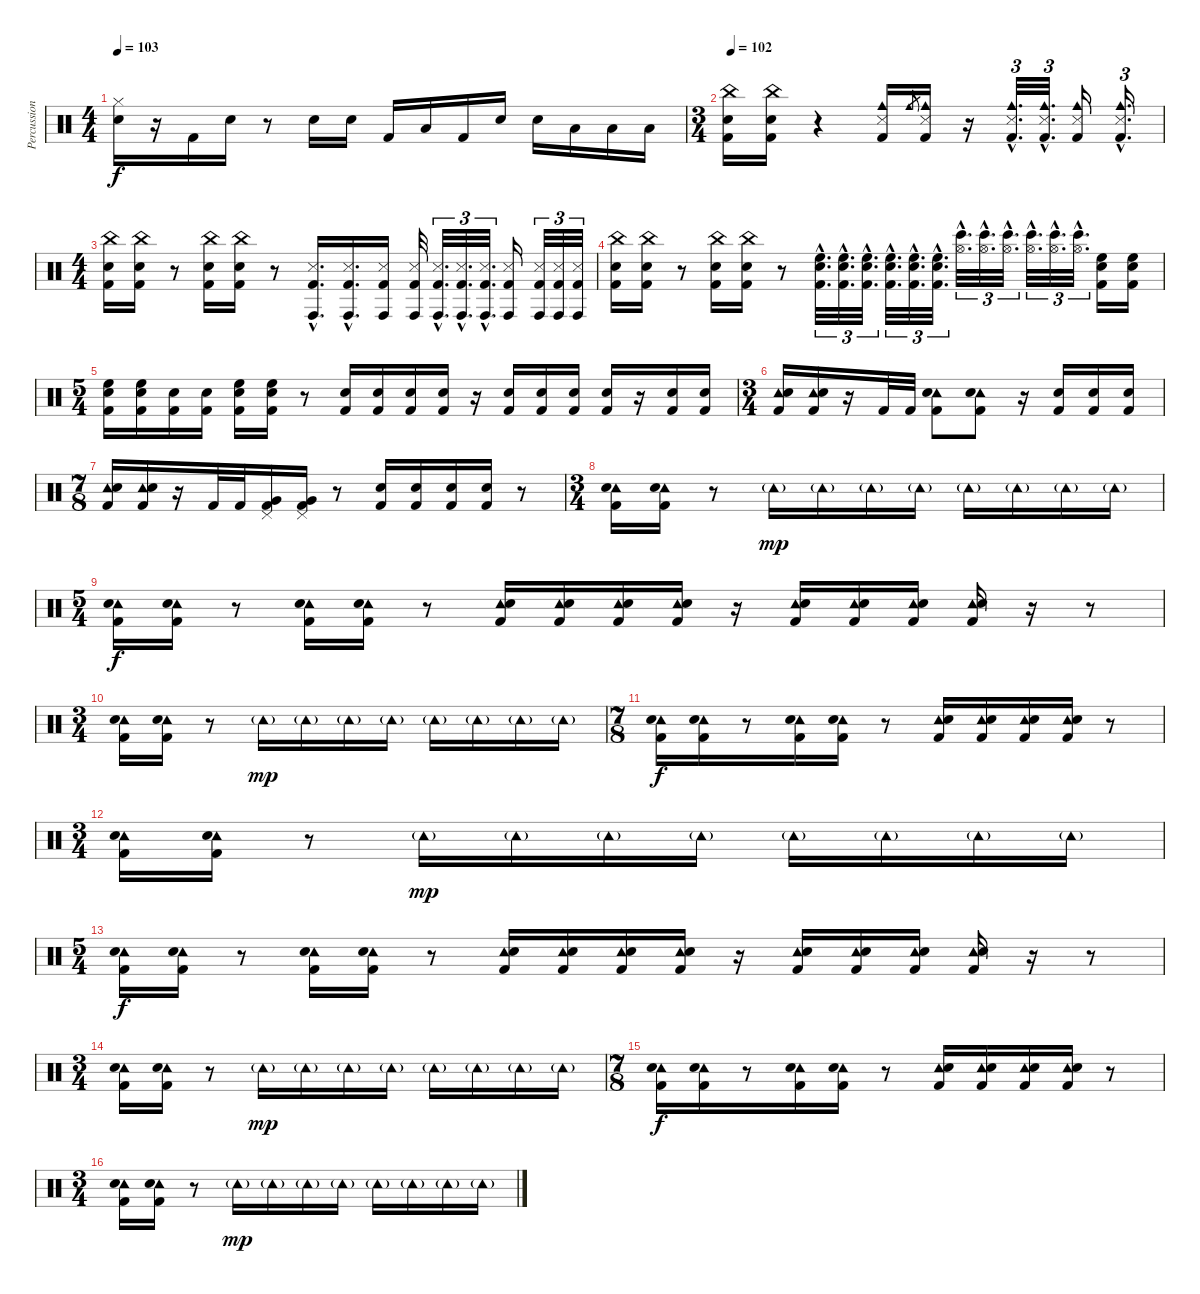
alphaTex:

\track ("Percussion" "Percussion") {instrument percussion}
\staff {score}
\articulation defaults
\ts (4 4)
\tempo 103
\clef neutral
\ks c
("Hi-Hat (closed)" "Snare (hit) 2").16{dy f} r.16 "Kick (hit) 2".16 "Electric Snare (hit)".16 r.8 "Snare (hit) 2".16 "Snare (hit) 2".16 "Kick (hit) 2".16 "Low Tom (hit)".16 "Kick (hit) 2".16 "Snare (hit) 2".16 "Snare (hit) 2".16 "Low Tom (hit)".16 "Low Tom (hit)".16 "Low Tom (hit)".16 |
\ts (3 4)
\tempo 102
("China (hit)" "Snare (hit) 2" "Kick (hit) 2").16 ("China (hit)" "Snare (hit) 2" "Kick (hit) 2").16 r.4 ("Cowbell medium (hit)" "Metronome (hit)" "Kick (hit) 2").16 "Cowbell medium (hit)".8{gr} ("Cowbell medium (hit)" "Metronome (hit)" "Kick (hit) 2").16 r.16 ("Cowbell medium (hit)"{hac} "Metronome (hit)"{hac} "Kick (hit) 2"{hac}).32{d tu (3 2)} ("Cowbell medium (hit)"{hac} "Metronome (hit)"{hac} "Kick (hit) 2"{hac}).32{d tu (3 2)} ("Cowbell medium (hit)" "Metronome (hit)" "Kick (hit) 2").16 ("Cowbell medium (hit)"{hac} "Metronome (hit)"{hac} "Kick (hit) 2"{hac}).16{d tu (3 2)} |
\ts (4 4)
("China (hit)" "Snare (hit) 2" "Kick (hit) 2").16 ("China (hit)" "Snare (hit) 2" "Kick (hit) 2").16 r.8 ("China (hit)" "Snare (hit) 2" "Kick (hit) 2").16 ("China (hit)" "Snare (hit) 2" "Kick (hit) 2").16 r.8 ("Conga high (hit)"{hac} "Metronome (hit)"{hac} "Kick (hit) 2"{hac}).16{d} ("Conga high (hit)"{hac} "Metronome (hit)"{hac} "Kick (hit) 2"{hac}).16{d} ("Conga high (hit)" "Metronome (hit)" "Kick (hit) 2").16 ("Conga high (hit)" "Metronome (hit)" "Kick (hit) 2").32 ("Conga high (hit)"{hac} "Metronome (hit)"{hac} "Kick (hit) 2"{hac}).32{d tu (3 2)} ("Conga high (hit)"{hac} "Metronome (hit)"{hac} "Kick (hit) 2"{hac}).32{d tu (3 2)} ("Conga high (hit)"{hac} "Metronome (hit)"{hac} "Kick (hit) 2"{hac}).32{d tu (3 2)} ("Conga high (hit)" "Metronome (hit)" "Kick (hit) 2").16 ("Conga high (hit)" "Metronome (hit)" "Kick (hit) 2").32{tu (3 2)} ("Conga high (hit)" "Metronome (hit)" "Kick (hit) 2").32{tu (3 2)} ("Conga high (hit)" "Metronome (hit)" "Kick (hit) 2").32{tu (3 2)} |
("China (hit)" "Snare (hit) 2" "Kick (hit) 2").16 ("China (hit)" "Snare (hit) 2" "Kick (hit) 2").16 r.8 ("China (hit)" "Snare (hit) 2" "Kick (hit) 2").16 ("China (hit)" "Snare (hit) 2" "Kick (hit) 2").16 r.8 ("High Floor Tom (hit)"{hac} "Electric Snare (hit)"{hac} "Kick (hit) 2"{hac}).32{d tu (3 2)} ("High Floor Tom (hit)"{hac} "Electric Snare (hit)"{hac} "Kick (hit) 2"{hac}).32{d tu (3 2)} ("High Floor Tom (hit)"{hac} "Electric Snare (hit)"{hac} "Kick (hit) 2"{hac}).32{d tu (3 2)} ("High Floor Tom (hit)"{hac} "Electric Snare (hit)"{hac} "Kick (hit) 2"{hac}).32{d tu (3 2)} ("High Floor Tom (hit)"{hac} "Electric Snare (hit)"{hac} "Kick (hit) 2"{hac}).32{d tu (3 2)} ("High Floor Tom (hit)"{hac} "Electric Snare (hit)"{hac} "Kick (hit) 2"{hac}).32{d tu (3 2)} ("Hi-Hat (open)"{hac} "Bongo High (hit)"{hac}).32{d tu (3 2)} ("Hi-Hat (open)"{hac} "Bongo High (hit)"{hac}).32{d tu (3 2)} ("Hi-Hat (open)"{hac} "Bongo High (hit)"{hac}).32{d tu (3 2)} ("Hi-Hat (open)"{hac} "Bongo High (hit)"{hac}).32{d tu (3 2)} ("Hi-Hat (open)"{hac} "Bongo High (hit)"{hac}).32{d tu (3 2)} ("Hi-Hat (open)"{hac} "Bongo High (hit)"{hac}).32{d tu (3 2)} ("High Floor Tom (hit)" "Electric Snare (hit)" "Kick (hit) 2").16 ("High Floor Tom (hit)" "Electric Snare (hit)" "Kick (hit) 2").16 |
\ts (5 4)
("High Floor Tom (hit)" "Electric Snare (hit)" "Kick (hit) 2").16 ("High Floor Tom (hit)" "Electric Snare (hit)" "Kick (hit) 2").16 ("Electric Snare (hit)" "Kick (hit) 2").16 ("Electric Snare (hit)" "Kick (hit) 2").16 ("High Floor Tom (hit)" "Electric Snare (hit)" "Kick (hit) 2").16 ("High Floor Tom (hit)" "Electric Snare (hit)" "Kick (hit) 2").16 r.8 ("Electric Snare (hit)" "Kick (hit) 2").16 ("Electric Snare (hit)" "Kick (hit) 2").16 ("Electric Snare (hit)" "Kick (hit) 2").16 ("Electric Snare (hit)" "Kick (hit) 2").16 r.16 ("Electric Snare (hit)" "Kick (hit) 2").16 ("Electric Snare (hit)" "Kick (hit) 2").16 ("Electric Snare (hit)" "Kick (hit) 2").16 ("Electric Snare (hit)" "Kick (hit) 2").16 r.16 ("Electric Snare (hit)" "Kick (hit) 2").16 ("Electric Snare (hit)" "Kick (hit) 2").16 |
\ts (3 4)
("Tambourine (hit)" "Snare (hit) 2" "Kick (hit) 2").16 ("Tambourine (hit)" "Snare (hit) 2" "Kick (hit) 2").16 r.16 "Kick (hit) 2".32 "Kick (hit) 2".32 ("Tambourine (hit)" "Snare (hit) 2" "Kick (hit) 2").8 ("Tambourine (hit)" "Snare (hit) 2" "Kick (hit) 2").8 r.16 ("Snare (hit) 2" "Kick (hit) 2").16 ("Snare (hit) 2" "Kick (hit) 2").16 ("Snare (hit) 2" "Kick (hit) 2").16 |
\ts (7 8)
("Tambourine (hit)" "Snare (hit) 2" "Kick (hit) 2").16 ("Tambourine (hit)" "Snare (hit) 2" "Kick (hit) 2").16 r.16 "Kick (hit) 2".32 "Kick (hit) 2".32 ("Pedal Hi-Hat (hit)" "Very Low Tom (hit)" "Kick (hit) 2").16 ("Pedal Hi-Hat (hit)" "Very Low Tom (hit)" "Kick (hit) 2").16 r.8 ("Snare (hit) 2" "Kick (hit) 2").16 ("Snare (hit) 2" "Kick (hit) 2").16 ("Snare (hit) 2" "Kick (hit) 2").16 ("Snare (hit) 2" "Kick (hit) 2").16 r.8 |
\ts (3 4)
("Tambourine (hit)" "Snare (hit) 2" "Kick (hit) 2").16 ("Tambourine (hit)" "Snare (hit) 2" "Kick (hit) 2").16 r.8 "Tambourine (hit)"{g}.16{dy mp} "Tambourine (hit)"{g}.16 "Tambourine (hit)"{g}.16 "Tambourine (hit)"{g}.16 "Tambourine (hit)"{g}.16 "Tambourine (hit)"{g}.16 "Tambourine (hit)"{g}.16 "Tambourine (hit)"{g}.16 |
\ts (5 4)
("Tambourine (hit)" "Snare (hit) 2" "Kick (hit) 2").16{dy f} ("Tambourine (hit)" "Snare (hit) 2" "Kick (hit) 2").16 r.8 ("Tambourine (hit)" "Snare (hit) 2" "Kick (hit) 2").16 ("Tambourine (hit)" "Snare (hit) 2" "Kick (hit) 2").16 r.8 ("Tambourine (hit)" "Electric Snare (hit)" "Kick (hit) 2").16 ("Tambourine (hit)" "Electric Snare (hit)" "Kick (hit) 2").16 ("Tambourine (hit)" "Electric Snare (hit)" "Kick (hit) 2").16 ("Tambourine (hit)" "Electric Snare (hit)" "Kick (hit) 2").16 r.16 ("Tambourine (hit)" "Electric Snare (hit)" "Kick (hit) 2").16 ("Tambourine (hit)" "Electric Snare (hit)" "Kick (hit) 2").16 ("Tambourine (hit)" "Electric Snare (hit)" "Kick (hit) 2").16 ("Tambourine (hit)" "Electric Snare (hit)" "Kick (hit) 2").16 r.16 r.8 |
\ts (3 4)
("Tambourine (hit)" "Snare (hit) 2" "Kick (hit) 2").16 ("Tambourine (hit)" "Snare (hit) 2" "Kick (hit) 2").16 r.8 "Tambourine (hit)"{g}.16{dy mp} "Tambourine (hit)"{g}.16 "Tambourine (hit)"{g}.16 "Tambourine (hit)"{g}.16 "Tambourine (hit)"{g}.16 "Tambourine (hit)"{g}.16 "Tambourine (hit)"{g}.16 "Tambourine (hit)"{g}.16 |
\ts (7 8)
("Tambourine (hit)" "Snare (hit) 2" "Kick (hit) 2").16{dy f} ("Tambourine (hit)" "Snare (hit) 2" "Kick (hit) 2").16 r.8 ("Tambourine (hit)" "Snare (hit) 2" "Kick (hit) 2").16 ("Tambourine (hit)" "Snare (hit) 2" "Kick (hit) 2").16 r.8 ("Tambourine (hit)" "Electric Snare (hit)" "Kick (hit) 2").16 ("Tambourine (hit)" "Electric Snare (hit)" "Kick (hit) 2").16 ("Tambourine (hit)" "Electric Snare (hit)" "Kick (hit) 2").16 ("Tambourine (hit)" "Electric Snare (hit)" "Kick (hit) 2").16 r.8 |
\ts (3 4)
("Tambourine (hit)" "Snare (hit) 2" "Kick (hit) 2").16 ("Tambourine (hit)" "Snare (hit) 2" "Kick (hit) 2").16 r.8 "Tambourine (hit)"{g}.16{dy mp} "Tambourine (hit)"{g}.16 "Tambourine (hit)"{g}.16 "Tambourine (hit)"{g}.16 "Tambourine (hit)"{g}.16 "Tambourine (hit)"{g}.16 "Tambourine (hit)"{g}.16 "Tambourine (hit)"{g}.16 |
\ts (5 4)
("Tambourine (hit)" "Snare (hit) 2" "Kick (hit) 2").16{dy f} ("Tambourine (hit)" "Snare (hit) 2" "Kick (hit) 2").16 r.8 ("Tambourine (hit)" "Snare (hit) 2" "Kick (hit) 2").16 ("Tambourine (hit)" "Snare (hit) 2" "Kick (hit) 2").16 r.8 ("Tambourine (hit)" "Electric Snare (hit)" "Kick (hit) 2").16 ("Tambourine (hit)" "Electric Snare (hit)" "Kick (hit) 2").16 ("Tambourine (hit)" "Electric Snare (hit)" "Kick (hit) 2").16 ("Tambourine (hit)" "Electric Snare (hit)" "Kick (hit) 2").16 r.16 ("Tambourine (hit)" "Electric Snare (hit)" "Kick (hit) 2").16 ("Tambourine (hit)" "Electric Snare (hit)" "Kick (hit) 2").16 ("Tambourine (hit)" "Electric Snare (hit)" "Kick (hit) 2").16 ("Tambourine (hit)" "Electric Snare (hit)" "Kick (hit) 2").16 r.16 r.8 |
\ts (3 4)
("Tambourine (hit)" "Snare (hit) 2" "Kick (hit) 2").16 ("Tambourine (hit)" "Snare (hit) 2" "Kick (hit) 2").16 r.8 "Tambourine (hit)"{g}.16{dy mp} "Tambourine (hit)"{g}.16 "Tambourine (hit)"{g}.16 "Tambourine (hit)"{g}.16 "Tambourine (hit)"{g}.16 "Tambourine (hit)"{g}.16 "Tambourine (hit)"{g}.16 "Tambourine (hit)"{g}.16 |
\ts (7 8)
("Tambourine (hit)" "Snare (hit) 2" "Kick (hit) 2").16{dy f} ("Tambourine (hit)" "Snare (hit) 2" "Kick (hit) 2").16 r.8 ("Tambourine (hit)" "Snare (hit) 2" "Kick (hit) 2").16 ("Tambourine (hit)" "Snare (hit) 2" "Kick (hit) 2").16 r.8 ("Tambourine (hit)" "Electric Snare (hit)" "Kick (hit) 2").16 ("Tambourine (hit)" "Electric Snare (hit)" "Kick (hit) 2").16 ("Tambourine (hit)" "Electric Snare (hit)" "Kick (hit) 2").16 ("Tambourine (hit)" "Electric Snare (hit)" "Kick (hit) 2").16 r.8 |
\ts (3 4)
("Tambourine (hit)" "Snare (hit) 2" "Kick (hit) 2").16{volume 10} ("Tambourine (hit)" "Snare (hit) 2" "Kick (hit) 2").16 r.8 "Tambourine (hit)"{g}.16{dy mp} "Tambourine (hit)"{g}.16 "Tambourine (hit)"{g}.16 "Tambourine (hit)"{g}.16 "Tambourine (hit)"{g}.16 "Tambourine (hit)"{g}.16 "Tambourine (hit)"{g}.16 "Tambourine (hit)"{g}.16
